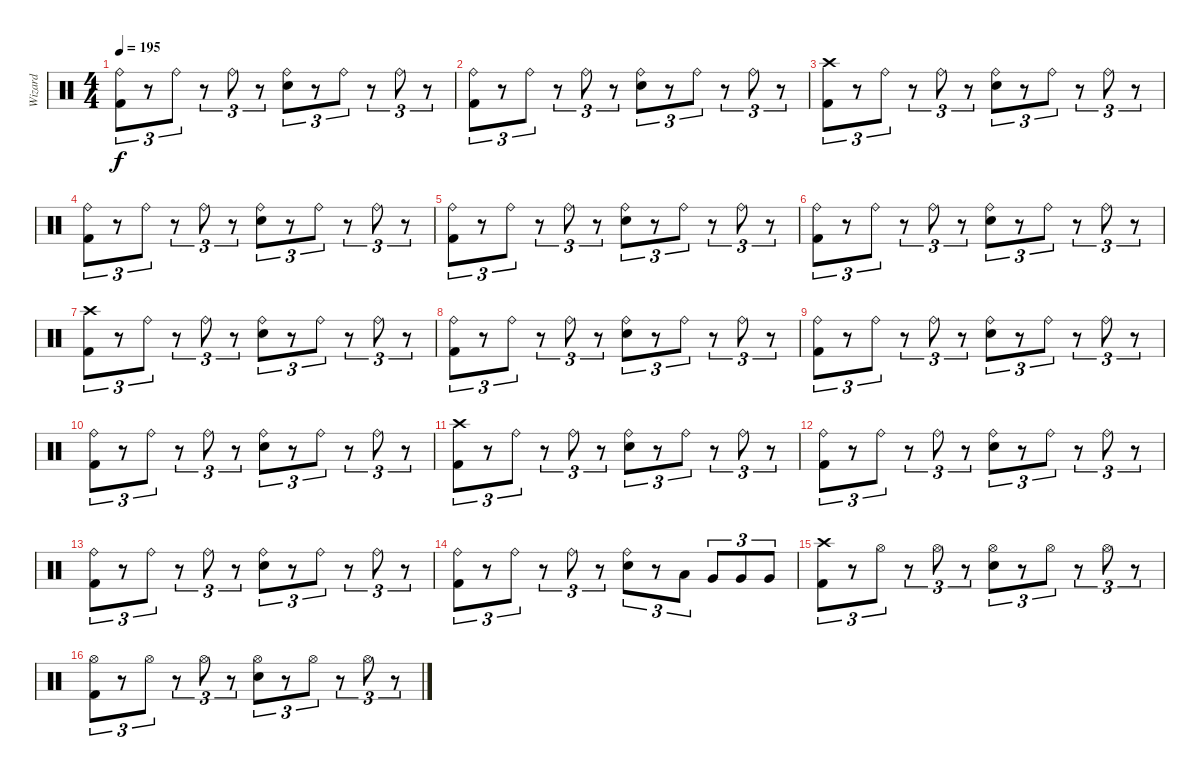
\track ("Wizard" "Wizard") {instrument percussion}
\staff {score}
\articulation defaults
\ts (4 4)
\tempo 195
\clef neutral
\ks c
("Ride (bell)" "Kick (hit) 2").8{tu (3 2) dy f} r.8{tu (3 2)} "Ride (bell)".8{tu (3 2)} r.8{tu (3 2)} "Ride (bell)".8{tu (3 2)} r.8{tu (3 2)} ("Ride (bell)" "Snare (hit) 2").8{tu (3 2)} r.8{tu (3 2)} "Ride (bell)".8{tu (3 2)} r.8{tu (3 2)} "Ride (bell)".8{tu (3 2)} r.8{tu (3 2)} |
("Ride (bell)" "Kick (hit) 2").8{tu (3 2)} r.8{tu (3 2)} "Ride (bell)".8{tu (3 2)} r.8{tu (3 2)} "Ride (bell)".8{tu (3 2)} r.8{tu (3 2)} ("Ride (bell)" "Snare (hit) 2").8{tu (3 2)} r.8{tu (3 2)} "Ride (bell)".8{tu (3 2)} r.8{tu (3 2)} "Ride (bell)".8{tu (3 2)} r.8{tu (3 2)} |
("Crash high (hit)" "Kick (hit) 2").8{tu (3 2)} r.8{tu (3 2)} "Ride (bell)".8{tu (3 2)} r.8{tu (3 2)} "Ride (bell)".8{tu (3 2)} r.8{tu (3 2)} ("Ride (bell)" "Snare (hit) 2").8{tu (3 2)} r.8{tu (3 2)} "Ride (bell)".8{tu (3 2)} r.8{tu (3 2)} "Ride (bell)".8{tu (3 2)} r.8{tu (3 2)} |
("Ride (bell)" "Kick (hit) 2").8{tu (3 2)} r.8{tu (3 2)} "Ride (bell)".8{tu (3 2)} r.8{tu (3 2)} "Ride (bell)".8{tu (3 2)} r.8{tu (3 2)} ("Ride (bell)" "Snare (hit) 2").8{tu (3 2)} r.8{tu (3 2)} "Ride (bell)".8{tu (3 2)} r.8{tu (3 2)} "Ride (bell)".8{tu (3 2)} r.8{tu (3 2)} |
("Ride (bell)" "Kick (hit) 2").8{tu (3 2)} r.8{tu (3 2)} "Ride (bell)".8{tu (3 2)} r.8{tu (3 2)} "Ride (bell)".8{tu (3 2)} r.8{tu (3 2)} ("Ride (bell)" "Snare (hit) 2").8{tu (3 2)} r.8{tu (3 2)} "Ride (bell)".8{tu (3 2)} r.8{tu (3 2)} "Ride (bell)".8{tu (3 2)} r.8{tu (3 2)} |
("Ride (bell)" "Kick (hit) 2").8{tu (3 2)} r.8{tu (3 2)} "Ride (bell)".8{tu (3 2)} r.8{tu (3 2)} "Ride (bell)".8{tu (3 2)} r.8{tu (3 2)} ("Ride (bell)" "Snare (hit) 2").8{tu (3 2)} r.8{tu (3 2)} "Ride (bell)".8{tu (3 2)} r.8{tu (3 2)} "Ride (bell)".8{tu (3 2)} r.8{tu (3 2)} |
("Crash high (hit)" "Kick (hit) 2").8{tu (3 2)} r.8{tu (3 2)} "Ride (bell)".8{tu (3 2)} r.8{tu (3 2)} "Ride (bell)".8{tu (3 2)} r.8{tu (3 2)} ("Ride (bell)" "Snare (hit) 2").8{tu (3 2)} r.8{tu (3 2)} "Ride (bell)".8{tu (3 2)} r.8{tu (3 2)} "Ride (bell)".8{tu (3 2)} r.8{tu (3 2)} |
("Ride (bell)" "Kick (hit) 2").8{tu (3 2)} r.8{tu (3 2)} "Ride (bell)".8{tu (3 2)} r.8{tu (3 2)} "Ride (bell)".8{tu (3 2)} r.8{tu (3 2)} ("Ride (bell)" "Snare (hit) 2").8{tu (3 2)} r.8{tu (3 2)} "Ride (bell)".8{tu (3 2)} r.8{tu (3 2)} "Ride (bell)".8{tu (3 2)} r.8{tu (3 2)} |
("Ride (bell)" "Kick (hit) 2").8{tu (3 2)} r.8{tu (3 2)} "Ride (bell)".8{tu (3 2)} r.8{tu (3 2)} "Ride (bell)".8{tu (3 2)} r.8{tu (3 2)} ("Ride (bell)" "Snare (hit) 2").8{tu (3 2)} r.8{tu (3 2)} "Ride (bell)".8{tu (3 2)} r.8{tu (3 2)} "Ride (bell)".8{tu (3 2)} r.8{tu (3 2)} |
("Ride (bell)" "Kick (hit) 2").8{tu (3 2)} r.8{tu (3 2)} "Ride (bell)".8{tu (3 2)} r.8{tu (3 2)} "Ride (bell)".8{tu (3 2)} r.8{tu (3 2)} ("Ride (bell)" "Snare (hit) 2").8{tu (3 2)} r.8{tu (3 2)} "Ride (bell)".8{tu (3 2)} r.8{tu (3 2)} "Ride (bell)".8{tu (3 2)} r.8{tu (3 2)} |
("Crash high (hit)" "Kick (hit) 2").8{tu (3 2)} r.8{tu (3 2)} "Ride (bell)".8{tu (3 2)} r.8{tu (3 2)} "Ride (bell)".8{tu (3 2)} r.8{tu (3 2)} ("Ride (bell)" "Snare (hit) 2").8{tu (3 2)} r.8{tu (3 2)} "Ride (bell)".8{tu (3 2)} r.8{tu (3 2)} "Ride (bell)".8{tu (3 2)} r.8{tu (3 2)} |
("Ride (bell)" "Kick (hit) 2").8{tu (3 2)} r.8{tu (3 2)} "Ride (bell)".8{tu (3 2)} r.8{tu (3 2)} "Ride (bell)".8{tu (3 2)} r.8{tu (3 2)} ("Ride (bell)" "Snare (hit) 2").8{tu (3 2)} r.8{tu (3 2)} "Ride (bell)".8{tu (3 2)} r.8{tu (3 2)} "Ride (bell)".8{tu (3 2)} r.8{tu (3 2)} |
("Ride (bell)" "Kick (hit) 2").8{tu (3 2)} r.8{tu (3 2)} "Ride (bell)".8{tu (3 2)} r.8{tu (3 2)} "Ride (bell)".8{tu (3 2)} r.8{tu (3 2)} ("Ride (bell)" "Snare (hit) 2").8{tu (3 2)} r.8{tu (3 2)} "Ride (bell)".8{tu (3 2)} r.8{tu (3 2)} "Ride (bell)".8{tu (3 2)} r.8{tu (3 2)} |
("Ride (bell)" "Kick (hit) 2").8{tu (3 2)} r.8{tu (3 2)} "Ride (bell)".8{tu (3 2)} r.8{tu (3 2)} "Ride (bell)".8{tu (3 2)} r.8{tu (3 2)} ("Ride (bell)" "Snare (hit) 2").8{tu (3 2)} r.8{tu (3 2)} "Low Tom (hit)".8{tu (3 2)} "Very Low Tom (hit)".8{tu (3 2)} "Very Low Tom (hit)".8{tu (3 2)} "Very Low Tom (hit)".8{tu (3 2)} |
("Crash high (hit)" "Kick (hit) 2").8{tu (3 2)} r.8{tu (3 2)} "Hi-Hat (open)".8{tu (3 2)} r.8{tu (3 2)} "Hi-Hat (open)".8{tu (3 2)} r.8{tu (3 2)} ("Hi-Hat (open)" "Snare (hit) 2").8{tu (3 2)} r.8{tu (3 2)} "Hi-Hat (open)".8{tu (3 2)} r.8{tu (3 2)} "Hi-Hat (open)".8{tu (3 2)} r.8{tu (3 2)} |
("Hi-Hat (open)" "Kick (hit) 2").8{tu (3 2)} r.8{tu (3 2)} "Hi-Hat (open)".8{tu (3 2)} r.8{tu (3 2)} "Hi-Hat (open)".8{tu (3 2)} r.8{tu (3 2)} ("Hi-Hat (open)" "Snare (hit) 2").8{tu (3 2)} r.8{tu (3 2)} "Hi-Hat (open)".8{tu (3 2)} r.8{tu (3 2)} "Hi-Hat (open)".8{tu (3 2)} r.8{tu (3 2)}
